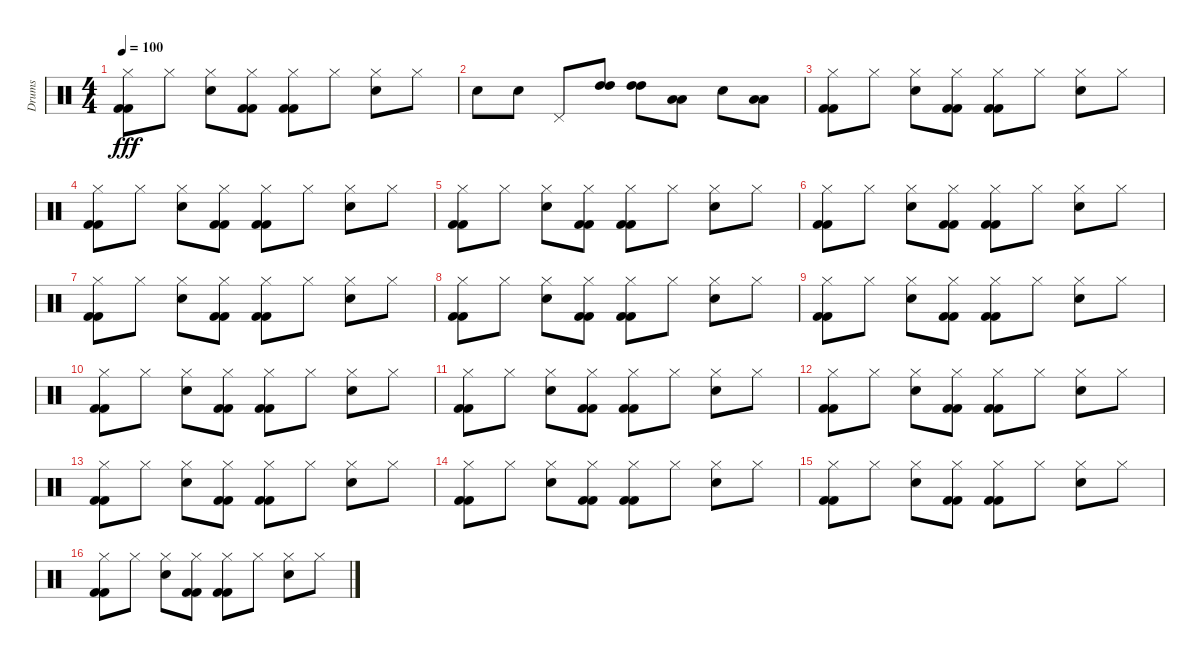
\track ("Drums" "Drums") {instrument percussion}
\staff {score}
\articulation defaults
\ts (4 4)
\tempo 100
\clef neutral
\ks c
("Hi-Hat (closed)" "Kick (hit) 2" "Kick (hit) 2").8{dy fff} "Hi-Hat (closed)".8 ("Hi-Hat (closed)" "Electric Snare (hit)").8 ("Hi-Hat (closed)" "Kick (hit) 2" "Kick (hit) 2").8 ("Hi-Hat (closed)" "Kick (hit) 2" "Kick (hit) 2").8 "Hi-Hat (closed)".8 ("Hi-Hat (closed)" "Electric Snare (hit)").8 "Hi-Hat (closed)".8 |
"Electric Snare (hit)".8 "Electric Snare (hit)".8 "Pedal Hi-Hat (hit)".8 ("High Tom (hit)" "High Tom (hit)").8 ("High Tom (hit)" "High Tom (hit)").8 ("Low Tom (hit)" "Low Tom (hit)").8 "Electric Snare (hit)".8 ("Low Tom (hit)" "Low Tom (hit)").8 |
("Hi-Hat (closed)" "Kick (hit) 2" "Kick (hit) 2").8 "Hi-Hat (closed)".8 ("Hi-Hat (closed)" "Electric Snare (hit)").8 ("Hi-Hat (closed)" "Kick (hit) 2" "Kick (hit) 2").8 ("Hi-Hat (closed)" "Kick (hit) 2" "Kick (hit) 2").8 "Hi-Hat (closed)".8 ("Hi-Hat (closed)" "Electric Snare (hit)").8 "Hi-Hat (closed)".8 |
("Hi-Hat (closed)" "Kick (hit) 2" "Kick (hit) 2").8 "Hi-Hat (closed)".8 ("Hi-Hat (closed)" "Electric Snare (hit)").8 ("Hi-Hat (closed)" "Kick (hit) 2" "Kick (hit) 2").8 ("Hi-Hat (closed)" "Kick (hit) 2" "Kick (hit) 2").8 "Hi-Hat (closed)".8 ("Hi-Hat (closed)" "Electric Snare (hit)").8 "Hi-Hat (closed)".8 |
("Hi-Hat (closed)" "Kick (hit) 2" "Kick (hit) 2").8 "Hi-Hat (closed)".8 ("Hi-Hat (closed)" "Electric Snare (hit)").8 ("Hi-Hat (closed)" "Kick (hit) 2" "Kick (hit) 2").8 ("Hi-Hat (closed)" "Kick (hit) 2" "Kick (hit) 2").8 "Hi-Hat (closed)".8 ("Hi-Hat (closed)" "Electric Snare (hit)").8 "Hi-Hat (closed)".8 |
("Hi-Hat (closed)" "Kick (hit) 2" "Kick (hit) 2").8 "Hi-Hat (closed)".8 ("Hi-Hat (closed)" "Electric Snare (hit)").8 ("Hi-Hat (closed)" "Kick (hit) 2" "Kick (hit) 2").8 ("Hi-Hat (closed)" "Kick (hit) 2" "Kick (hit) 2").8 "Hi-Hat (closed)".8 ("Hi-Hat (closed)" "Electric Snare (hit)").8 "Hi-Hat (closed)".8 |
("Hi-Hat (closed)" "Kick (hit) 2" "Kick (hit) 2").8 "Hi-Hat (closed)".8 ("Hi-Hat (closed)" "Electric Snare (hit)").8 ("Hi-Hat (closed)" "Kick (hit) 2" "Kick (hit) 2").8 ("Hi-Hat (closed)" "Kick (hit) 2" "Kick (hit) 2").8 "Hi-Hat (closed)".8 ("Hi-Hat (closed)" "Electric Snare (hit)").8 "Hi-Hat (closed)".8 |
("Hi-Hat (closed)" "Kick (hit) 2" "Kick (hit) 2").8 "Hi-Hat (closed)".8 ("Hi-Hat (closed)" "Electric Snare (hit)").8 ("Hi-Hat (closed)" "Kick (hit) 2" "Kick (hit) 2").8 ("Hi-Hat (closed)" "Kick (hit) 2" "Kick (hit) 2").8 "Hi-Hat (closed)".8 ("Hi-Hat (closed)" "Electric Snare (hit)").8 "Hi-Hat (closed)".8 |
("Hi-Hat (closed)" "Kick (hit) 2" "Kick (hit) 2").8 "Hi-Hat (closed)".8 ("Hi-Hat (closed)" "Electric Snare (hit)").8 ("Hi-Hat (closed)" "Kick (hit) 2" "Kick (hit) 2").8 ("Hi-Hat (closed)" "Kick (hit) 2" "Kick (hit) 2").8 "Hi-Hat (closed)".8 ("Hi-Hat (closed)" "Electric Snare (hit)").8 "Hi-Hat (closed)".8 |
("Hi-Hat (closed)" "Kick (hit) 2" "Kick (hit) 2").8 "Hi-Hat (closed)".8 ("Hi-Hat (closed)" "Electric Snare (hit)").8 ("Hi-Hat (closed)" "Kick (hit) 2" "Kick (hit) 2").8 ("Hi-Hat (closed)" "Kick (hit) 2" "Kick (hit) 2").8 "Hi-Hat (closed)".8 ("Hi-Hat (closed)" "Electric Snare (hit)").8 "Hi-Hat (closed)".8 |
("Hi-Hat (closed)" "Kick (hit) 2" "Kick (hit) 2").8 "Hi-Hat (closed)".8 ("Hi-Hat (closed)" "Electric Snare (hit)").8 ("Hi-Hat (closed)" "Kick (hit) 2" "Kick (hit) 2").8 ("Hi-Hat (closed)" "Kick (hit) 2" "Kick (hit) 2").8 "Hi-Hat (closed)".8 ("Hi-Hat (closed)" "Electric Snare (hit)").8 "Hi-Hat (closed)".8 |
("Hi-Hat (closed)" "Kick (hit) 2" "Kick (hit) 2").8 "Hi-Hat (closed)".8 ("Hi-Hat (closed)" "Electric Snare (hit)").8 ("Hi-Hat (closed)" "Kick (hit) 2" "Kick (hit) 2").8 ("Hi-Hat (closed)" "Kick (hit) 2" "Kick (hit) 2").8 "Hi-Hat (closed)".8 ("Hi-Hat (closed)" "Electric Snare (hit)").8 "Hi-Hat (closed)".8 |
("Hi-Hat (closed)" "Kick (hit) 2" "Kick (hit) 2").8 "Hi-Hat (closed)".8 ("Hi-Hat (closed)" "Electric Snare (hit)").8 ("Hi-Hat (closed)" "Kick (hit) 2" "Kick (hit) 2").8 ("Hi-Hat (closed)" "Kick (hit) 2" "Kick (hit) 2").8 "Hi-Hat (closed)".8 ("Hi-Hat (closed)" "Electric Snare (hit)").8 "Hi-Hat (closed)".8 |
("Hi-Hat (closed)" "Kick (hit) 2" "Kick (hit) 2").8 "Hi-Hat (closed)".8 ("Hi-Hat (closed)" "Electric Snare (hit)").8 ("Hi-Hat (closed)" "Kick (hit) 2" "Kick (hit) 2").8 ("Hi-Hat (closed)" "Kick (hit) 2" "Kick (hit) 2").8 "Hi-Hat (closed)".8 ("Hi-Hat (closed)" "Electric Snare (hit)").8 "Hi-Hat (closed)".8 |
("Hi-Hat (closed)" "Kick (hit) 2" "Kick (hit) 2").8 "Hi-Hat (closed)".8 ("Hi-Hat (closed)" "Electric Snare (hit)").8 ("Hi-Hat (closed)" "Kick (hit) 2" "Kick (hit) 2").8 ("Hi-Hat (closed)" "Kick (hit) 2" "Kick (hit) 2").8 "Hi-Hat (closed)".8 ("Hi-Hat (closed)" "Electric Snare (hit)").8 "Hi-Hat (closed)".8 |
("Hi-Hat (closed)" "Kick (hit) 2" "Kick (hit) 2").8 "Hi-Hat (closed)".8 ("Hi-Hat (closed)" "Electric Snare (hit)").8 ("Hi-Hat (closed)" "Kick (hit) 2" "Kick (hit) 2").8 ("Hi-Hat (closed)" "Kick (hit) 2" "Kick (hit) 2").8 "Hi-Hat (closed)".8 ("Hi-Hat (closed)" "Electric Snare (hit)").8 "Hi-Hat (closed)".8
